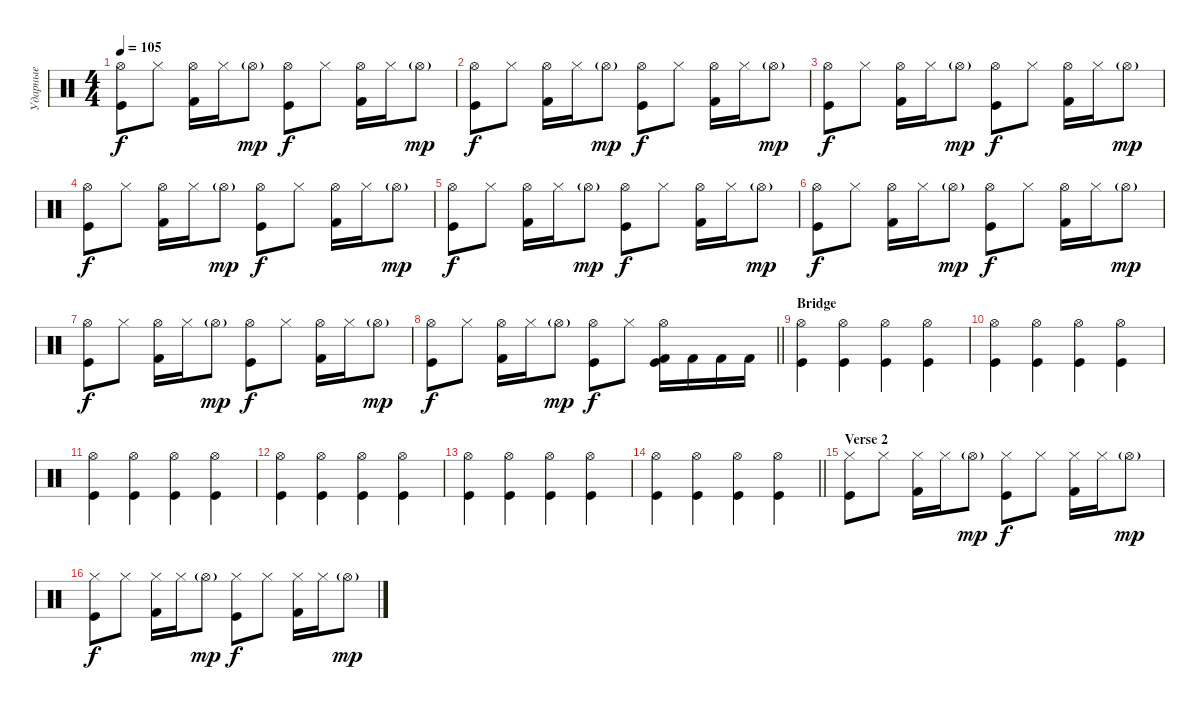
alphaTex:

\track ("Ударные" "Ударные") {instrument percussion}
\staff {score}
\articulation defaults
\ts (4 4)
\tempo 105
\clef neutral
\ks c
("Hi-Hat (open)" "Kick (hit)").8{dy f} "Hi-Hat (closed)".8 ("Hi-Hat (open)" "Kick (hit) 2").16 "Hi-Hat (closed)".16 "Hi-Hat (open)"{g}.8{dy mp} ("Hi-Hat (open)" "Kick (hit)").8{dy f} "Hi-Hat (closed)".8 ("Hi-Hat (open)" "Kick (hit) 2").16 "Hi-Hat (closed)".16 "Hi-Hat (open)"{g}.8{dy mp} |
("Hi-Hat (open)" "Kick (hit)").8{dy f} "Hi-Hat (closed)".8 ("Hi-Hat (open)" "Kick (hit) 2").16 "Hi-Hat (closed)".16 "Hi-Hat (open)"{g}.8{dy mp} ("Hi-Hat (open)" "Kick (hit)").8{dy f} "Hi-Hat (closed)".8 ("Hi-Hat (open)" "Kick (hit) 2").16 "Hi-Hat (closed)".16 "Hi-Hat (open)"{g}.8{dy mp} |
("Hi-Hat (open)" "Kick (hit)").8{dy f} "Hi-Hat (closed)".8 ("Hi-Hat (open)" "Kick (hit) 2").16 "Hi-Hat (closed)".16 "Hi-Hat (open)"{g}.8{dy mp} ("Hi-Hat (open)" "Kick (hit)").8{dy f} "Hi-Hat (closed)".8 ("Hi-Hat (open)" "Kick (hit) 2").16 "Hi-Hat (closed)".16 "Hi-Hat (open)"{g}.8{dy mp} |
("Hi-Hat (open)" "Kick (hit)").8{dy f} "Hi-Hat (closed)".8 ("Hi-Hat (open)" "Kick (hit) 2").16 "Hi-Hat (closed)".16 "Hi-Hat (open)"{g}.8{dy mp} ("Hi-Hat (open)" "Kick (hit)").8{dy f} "Hi-Hat (closed)".8 ("Hi-Hat (open)" "Kick (hit) 2").16 "Hi-Hat (closed)".16 "Hi-Hat (open)"{g}.8{dy mp} |
("Hi-Hat (open)" "Kick (hit)").8{dy f} "Hi-Hat (closed)".8 ("Hi-Hat (open)" "Kick (hit) 2").16 "Hi-Hat (closed)".16 "Hi-Hat (open)"{g}.8{dy mp} ("Hi-Hat (open)" "Kick (hit)").8{dy f} "Hi-Hat (closed)".8 ("Hi-Hat (open)" "Kick (hit) 2").16 "Hi-Hat (closed)".16 "Hi-Hat (open)"{g}.8{dy mp} |
("Hi-Hat (open)" "Kick (hit)").8{dy f} "Hi-Hat (closed)".8 ("Hi-Hat (open)" "Kick (hit) 2").16 "Hi-Hat (closed)".16 "Hi-Hat (open)"{g}.8{dy mp} ("Hi-Hat (open)" "Kick (hit)").8{dy f} "Hi-Hat (closed)".8 ("Hi-Hat (open)" "Kick (hit) 2").16 "Hi-Hat (closed)".16 "Hi-Hat (open)"{g}.8{dy mp} |
("Hi-Hat (open)" "Kick (hit)").8{dy f} "Hi-Hat (closed)".8 ("Hi-Hat (open)" "Kick (hit) 2").16 "Hi-Hat (closed)".16 "Hi-Hat (open)"{g}.8{dy mp} ("Hi-Hat (open)" "Kick (hit)").8{dy f} "Hi-Hat (closed)".8 ("Hi-Hat (open)" "Kick (hit) 2").16 "Hi-Hat (closed)".16 "Hi-Hat (open)"{g}.8{dy mp} |
\barLineRight lightlight
("Hi-Hat (open)" "Kick (hit)").8{dy f} "Hi-Hat (closed)".8 ("Hi-Hat (open)" "Kick (hit) 2").16 "Hi-Hat (closed)".16 "Hi-Hat (open)"{g}.8{dy mp} ("Hi-Hat (open)" "Kick (hit)").8{dy f} "Hi-Hat (closed)".8 ("Hi-Hat (open)" "Kick (hit) 2" "Kick (hit)").16 "Kick (hit) 2".16 "Kick (hit) 2".16 "Kick (hit) 2".16 |
\section ("" "Bridge")
("Hi-Hat (open)" "Kick (hit)").4 ("Hi-Hat (open)" "Kick (hit)").4 ("Hi-Hat (open)" "Kick (hit)").4 ("Hi-Hat (open)" "Kick (hit)").4 |
("Hi-Hat (open)" "Kick (hit)").4 ("Hi-Hat (open)" "Kick (hit)").4 ("Hi-Hat (open)" "Kick (hit)").4 ("Hi-Hat (open)" "Kick (hit)").4 |
("Hi-Hat (open)" "Kick (hit)").4 ("Hi-Hat (open)" "Kick (hit)").4 ("Hi-Hat (open)" "Kick (hit)").4 ("Hi-Hat (open)" "Kick (hit)").4 |
("Hi-Hat (open)" "Kick (hit)").4 ("Hi-Hat (open)" "Kick (hit)").4 ("Hi-Hat (open)" "Kick (hit)").4 ("Hi-Hat (open)" "Kick (hit)").4 |
("Hi-Hat (open)" "Kick (hit)").4 ("Hi-Hat (open)" "Kick (hit)").4 ("Hi-Hat (open)" "Kick (hit)").4 ("Hi-Hat (open)" "Kick (hit)").4 |
\barLineRight lightlight
("Hi-Hat (open)" "Kick (hit)").4 ("Hi-Hat (open)" "Kick (hit)").4 ("Hi-Hat (open)" "Kick (hit)").4 ("Hi-Hat (open)" "Kick (hit)").4 |
\section ("" "Verse 2")
("Hi-Hat (closed)" "Kick (hit)").8 "Hi-Hat (closed)".8 ("Hi-Hat (closed)" "Kick (hit) 2").16 "Hi-Hat (closed)".16 "Hi-Hat (open)"{g}.8{dy mp} ("Hi-Hat (closed)" "Kick (hit)").8{dy f} "Hi-Hat (closed)".8 ("Hi-Hat (closed)" "Kick (hit) 2").16 "Hi-Hat (closed)".16 "Hi-Hat (open)"{g}.8{dy mp} |
("Hi-Hat (closed)" "Kick (hit)").8{dy f} "Hi-Hat (closed)".8 ("Hi-Hat (closed)" "Kick (hit) 2").16 "Hi-Hat (closed)".16 "Hi-Hat (open)"{g}.8{dy mp} ("Hi-Hat (closed)" "Kick (hit)").8{dy f} "Hi-Hat (closed)".8 ("Hi-Hat (closed)" "Kick (hit) 2").16 "Hi-Hat (closed)".16 "Hi-Hat (open)"{g}.8{dy mp}
